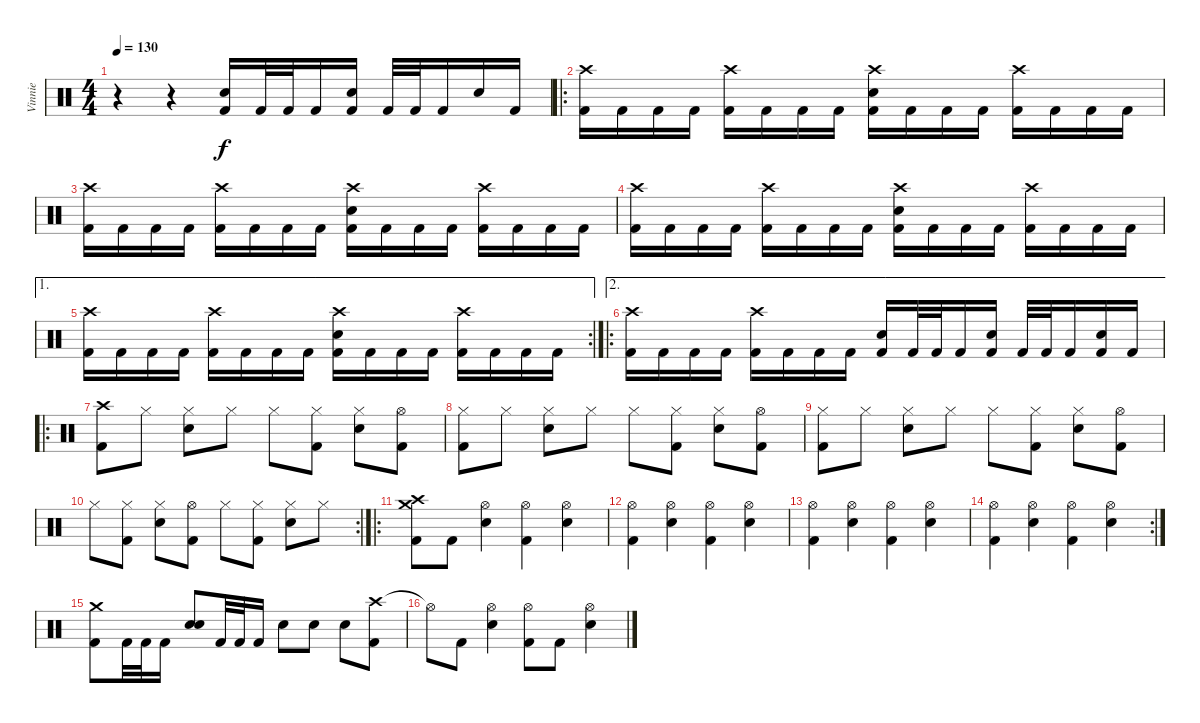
\track ("Vinnie" "Vinnie") {instrument percussion}
\staff {score}
\articulation defaults
\ts (4 4)
\tempo 130
\clef neutral
\ks c
r.4{dy f} r.4 ("Snare (hit) 2" "Kick (hit) 2").16 "Kick (hit) 2".32 "Kick (hit) 2".32 "Kick (hit) 2".16 ("Snare (hit) 2" "Kick (hit) 2").16 "Kick (hit) 2".32 "Kick (hit) 2".32 "Kick (hit) 2".16 "Snare (hit) 2".16 "Kick (hit) 2".16 |
\ro
("Crash high (hit)" "Kick (hit) 2").16 "Kick (hit) 2".16 "Kick (hit) 2".16 "Kick (hit) 2".16 ("Crash high (hit)" "Kick (hit) 2").16 "Kick (hit) 2".16 "Kick (hit) 2".16 "Kick (hit) 2".16 ("Crash high (hit)" "Snare (hit) 2" "Kick (hit) 2").16 "Kick (hit) 2".16 "Kick (hit) 2".16 "Kick (hit) 2".16 ("Crash high (hit)" "Kick (hit) 2").16 "Kick (hit) 2".16 "Kick (hit) 2".16 "Kick (hit) 2".16 |
("Crash high (hit)" "Kick (hit) 2").16 "Kick (hit) 2".16 "Kick (hit) 2".16 "Kick (hit) 2".16 ("Crash high (hit)" "Kick (hit) 2").16 "Kick (hit) 2".16 "Kick (hit) 2".16 "Kick (hit) 2".16 ("Crash high (hit)" "Snare (hit) 2" "Kick (hit) 2").16 "Kick (hit) 2".16 "Kick (hit) 2".16 "Kick (hit) 2".16 ("Crash high (hit)" "Kick (hit) 2").16 "Kick (hit) 2".16 "Kick (hit) 2".16 "Kick (hit) 2".16 |
("Crash high (hit)" "Kick (hit) 2").16 "Kick (hit) 2".16 "Kick (hit) 2".16 "Kick (hit) 2".16 ("Crash high (hit)" "Kick (hit) 2").16 "Kick (hit) 2".16 "Kick (hit) 2".16 "Kick (hit) 2".16 ("Crash high (hit)" "Snare (hit) 2" "Kick (hit) 2").16 "Kick (hit) 2".16 "Kick (hit) 2".16 "Kick (hit) 2".16 ("Crash high (hit)" "Kick (hit) 2").16 "Kick (hit) 2".16 "Kick (hit) 2".16 "Kick (hit) 2".16 |
\ae 1
\rc 2
("Crash high (hit)" "Kick (hit) 2").16 "Kick (hit) 2".16 "Kick (hit) 2".16 "Kick (hit) 2".16 ("Crash high (hit)" "Kick (hit) 2").16 "Kick (hit) 2".16 "Kick (hit) 2".16 "Kick (hit) 2".16 ("Crash high (hit)" "Snare (hit) 2" "Kick (hit) 2").16 "Kick (hit) 2".16 "Kick (hit) 2".16 "Kick (hit) 2".16 ("Crash high (hit)" "Kick (hit) 2").16 "Kick (hit) 2".16 "Kick (hit) 2".16 "Kick (hit) 2".16 |
\ae 2
\ro
("Crash high (hit)" "Kick (hit) 2").16 "Kick (hit) 2".16 "Kick (hit) 2".16 "Kick (hit) 2".16 ("Crash high (hit)" "Kick (hit) 2").16 "Kick (hit) 2".16 "Kick (hit) 2".16 "Kick (hit) 2".16 ("Snare (hit) 2" "Kick (hit) 2").16 "Kick (hit) 2".32 "Kick (hit) 2".32 "Kick (hit) 2".16 ("Snare (hit) 2" "Kick (hit) 2").16 "Kick (hit) 2".32 "Kick (hit) 2".32 "Kick (hit) 2".16 ("Snare (hit) 2" "Kick (hit) 2").16 "Kick (hit) 2".16 |
\ro
("Crash high (hit)" "Kick (hit) 2").8 "Hi-Hat (closed)".8 ("Hi-Hat (closed)" "Snare (hit) 2").8 "Hi-Hat (closed)".8 "Hi-Hat (closed)".8 ("Hi-Hat (closed)" "Kick (hit) 2").8 ("Hi-Hat (closed)" "Snare (hit) 2").8 ("Hi-Hat (open)" "Kick (hit) 2").8 |
("Hi-Hat (closed)" "Kick (hit) 2").8 "Hi-Hat (closed)".8 ("Hi-Hat (closed)" "Snare (hit) 2").8 "Hi-Hat (closed)".8 "Hi-Hat (closed)".8 ("Hi-Hat (closed)" "Kick (hit) 2").8 ("Hi-Hat (closed)" "Snare (hit) 2").8 ("Hi-Hat (open)" "Kick (hit) 2").8 |
("Hi-Hat (closed)" "Kick (hit) 2").8 "Hi-Hat (closed)".8 ("Hi-Hat (closed)" "Snare (hit) 2").8 "Hi-Hat (closed)".8 "Hi-Hat (closed)".8 ("Hi-Hat (closed)" "Kick (hit) 2").8 ("Hi-Hat (closed)" "Snare (hit) 2").8 ("Hi-Hat (open)" "Kick (hit) 2").8 |
\rc 2 "Hi-Hat (closed)".8
("Hi-Hat (closed)" "Kick (hit) 2").8 ("Hi-Hat (closed)" "Snare (hit) 2").8 ("Hi-Hat (open)" "Kick (hit) 2").8 "Hi-Hat (closed)".8 ("Hi-Hat (closed)" "Kick (hit) 2").8 ("Hi-Hat (closed)" "Snare (hit) 2").8 "Hi-Hat (closed)".8 |
\ro
("Crash high (hit)" "Crash medium (hit)" "Kick (hit) 2").8 "Kick (hit) 2".8 ("Hi-Hat (open)" "Snare (hit) 2").4 ("Hi-Hat (open)" "Kick (hit) 2").4 ("Hi-Hat (open)" "Snare (hit) 2").4 |
("Hi-Hat (open)" "Kick (hit) 2").4 ("Hi-Hat (open)" "Snare (hit) 2").4 ("Hi-Hat (open)" "Kick (hit) 2").4 ("Hi-Hat (open)" "Snare (hit) 2").4 |
("Hi-Hat (open)" "Kick (hit) 2").4 ("Hi-Hat (open)" "Snare (hit) 2").4 ("Hi-Hat (open)" "Kick (hit) 2").4 ("Hi-Hat (open)" "Snare (hit) 2").4 |
\rc 2
("Hi-Hat (open)" "Kick (hit) 2").4 ("Hi-Hat (open)" "Snare (hit) 2").4 ("Hi-Hat (open)" "Kick (hit) 2").4 ("Hi-Hat (open)" "Snare (hit) 2").4 |
("Crash medium (hit)" "Kick (hit) 2").8 "Kick (hit) 2".32 "Kick (hit) 2".32 "Kick (hit) 2".16 ("Snare (hit) 2" "Snare (hit) 2").8{bd 120} "Kick (hit) 2".32 "Kick (hit) 2".32 "Kick (hit) 2".16 "Snare (hit) 2".8 "Snare (hit) 2".8 "Snare (hit) 2".8 ("Crash high (hit)" "Kick (hit) 2").8 |
"Hi-Hat (open)"{t}.8 "Kick (hit) 2".8 ("Hi-Hat (open)" "Snare (hit) 2").4 ("Hi-Hat (open)" "Kick (hit) 2").8 "Kick (hit) 2".8 ("Hi-Hat (open)" "Snare (hit) 2").4
